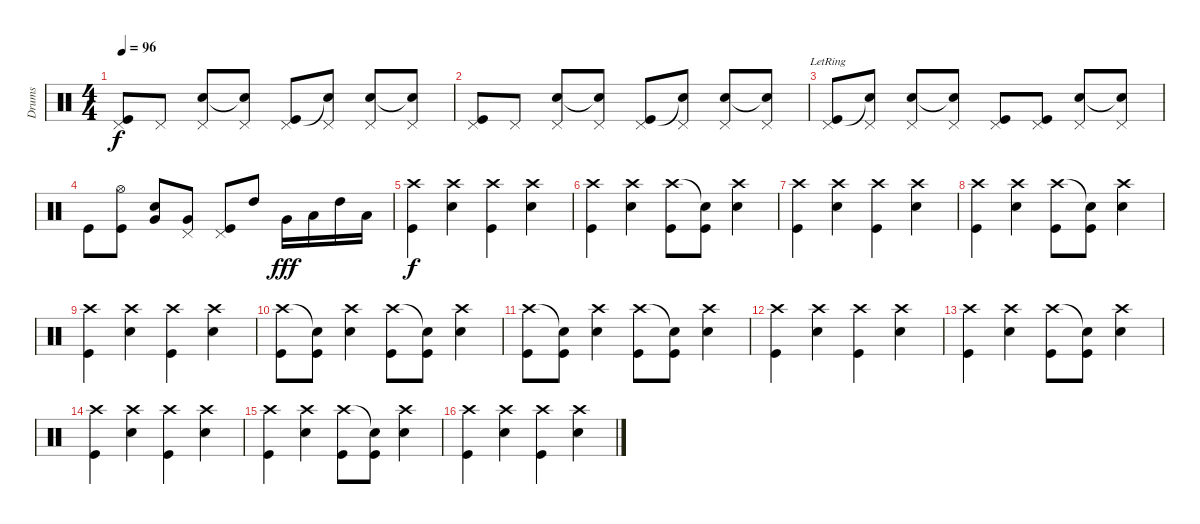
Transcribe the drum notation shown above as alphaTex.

\track ("Drums" "Drums") {instrument percussion}
\staff {score}
\articulation defaults
\ts (4 4)
\tempo 96
\clef neutral
\ks c
("Kick (hit)" "Pedal Hi-Hat (hit)").8{dy f} "Pedal Hi-Hat (hit)".8 ("Snare (hit) 2" "Pedal Hi-Hat (hit)").8 ("Snare (hit)"{t} "Pedal Hi-Hat (hit)").8 ("Kick (hit)" "Pedal Hi-Hat (hit)").8 ("Snare (hit)"{t} "Pedal Hi-Hat (hit)").8 ("Snare (hit) 2" "Pedal Hi-Hat (hit)").8 ("Snare (hit)"{t} "Pedal Hi-Hat (hit)").8 |
("Kick (hit)" "Pedal Hi-Hat (hit)").8 "Pedal Hi-Hat (hit)".8 ("Snare (hit) 2" "Pedal Hi-Hat (hit)").8 ("Snare (hit)"{t} "Pedal Hi-Hat (hit)").8 ("Kick (hit)" "Pedal Hi-Hat (hit)").8 ("Snare (hit)"{t} "Pedal Hi-Hat (hit)").8 ("Snare (hit) 2" "Pedal Hi-Hat (hit)").8 ("Snare (hit)"{t} "Pedal Hi-Hat (hit)").8 |
("Kick (hit)"{lr} "Pedal Hi-Hat (hit)").8 ("Snare (hit)"{t} "Pedal Hi-Hat (hit)").8 ("Snare (hit) 2" "Pedal Hi-Hat (hit)").8 ("Snare (hit)"{t} "Pedal Hi-Hat (hit)").8 ("Kick (hit)" "Pedal Hi-Hat (hit)").8 ("Kick (hit)" "Pedal Hi-Hat (hit)").8 ("Snare (hit) 2" "Pedal Hi-Hat (hit)").8 ("Snare (hit)"{t} "Pedal Hi-Hat (hit)").8 |
"Kick (hit)".8 ("Kick (hit)" "Hi-Hat (open)").8 ("Very Low Tom (hit)" "Snare (hit) 2").8 ("Very Low Tom (hit)" "Pedal Hi-Hat (hit)").8 ("Kick (hit)" "Pedal Hi-Hat (hit)").8 "High Tom (hit)".8 "Very Low Tom (hit)".16{dy fff} "Low Tom (hit)".16 "High Tom (hit)".16 "Low Tom (hit)".16 |
("Kick (hit)" "Crash high (hit)").4{dy f} ("Snare (hit) 2" "Crash high (hit)").4 ("Kick (hit)" "Crash high (hit)").4 ("Snare (hit) 2" "Crash high (hit)").4 |
("Kick (hit)" "Crash high (hit)").4 ("Snare (hit) 2" "Crash high (hit)").4 ("Kick (hit)" "Crash high (hit)").8 ("Kick (hit)" "Snare (hit)"{t}).8 ("Snare (hit) 2" "Crash high (hit)").4 |
("Kick (hit)" "Crash high (hit)").4 ("Snare (hit) 2" "Crash high (hit)").4 ("Kick (hit)" "Crash high (hit)").4 ("Snare (hit) 2" "Crash high (hit)").4 |
("Kick (hit)" "Crash high (hit)").4 ("Snare (hit) 2" "Crash high (hit)").4 ("Kick (hit)" "Crash high (hit)").8 ("Kick (hit)" "Snare (hit)"{t}).8 ("Snare (hit) 2" "Crash high (hit)").4 |
("Kick (hit)" "Crash high (hit)").4 ("Snare (hit) 2" "Crash high (hit)").4 ("Kick (hit)" "Crash high (hit)").4 ("Snare (hit) 2" "Crash high (hit)").4 |
("Kick (hit)" "Crash high (hit)").8 ("Kick (hit)" "Snare (hit)"{t}).8 ("Snare (hit) 2" "Crash high (hit)").4 ("Kick (hit)" "Crash high (hit)").8 ("Kick (hit)" "Snare (hit)"{t}).8 ("Snare (hit) 2" "Crash high (hit)").4 |
("Kick (hit)" "Crash high (hit)").8 ("Kick (hit)" "Snare (hit)"{t}).8 ("Snare (hit) 2" "Crash high (hit)").4 ("Kick (hit)" "Crash high (hit)").8 ("Kick (hit)" "Snare (hit)"{t}).8 ("Snare (hit) 2" "Crash high (hit)").4 |
("Kick (hit)" "Crash high (hit)").4 ("Snare (hit) 2" "Crash high (hit)").4 ("Kick (hit)" "Crash high (hit)").4 ("Snare (hit) 2" "Crash high (hit)").4 |
("Kick (hit)" "Crash high (hit)").4 ("Snare (hit) 2" "Crash high (hit)").4 ("Kick (hit)" "Crash high (hit)").8 ("Kick (hit)" "Snare (hit)"{t}).8 ("Snare (hit) 2" "Crash high (hit)").4 |
("Kick (hit)" "Crash high (hit)").4 ("Snare (hit) 2" "Crash high (hit)").4 ("Kick (hit)" "Crash high (hit)").4 ("Snare (hit) 2" "Crash high (hit)").4 |
("Kick (hit)" "Crash high (hit)").4 ("Snare (hit) 2" "Crash high (hit)").4 ("Kick (hit)" "Crash high (hit)").8 ("Kick (hit)" "Snare (hit)"{t}).8 ("Snare (hit) 2" "Crash high (hit)").4 |
("Kick (hit)" "Crash high (hit)").4 ("Snare (hit) 2" "Crash high (hit)").4 ("Kick (hit)" "Crash high (hit)").4 ("Snare (hit) 2" "Crash high (hit)").4
